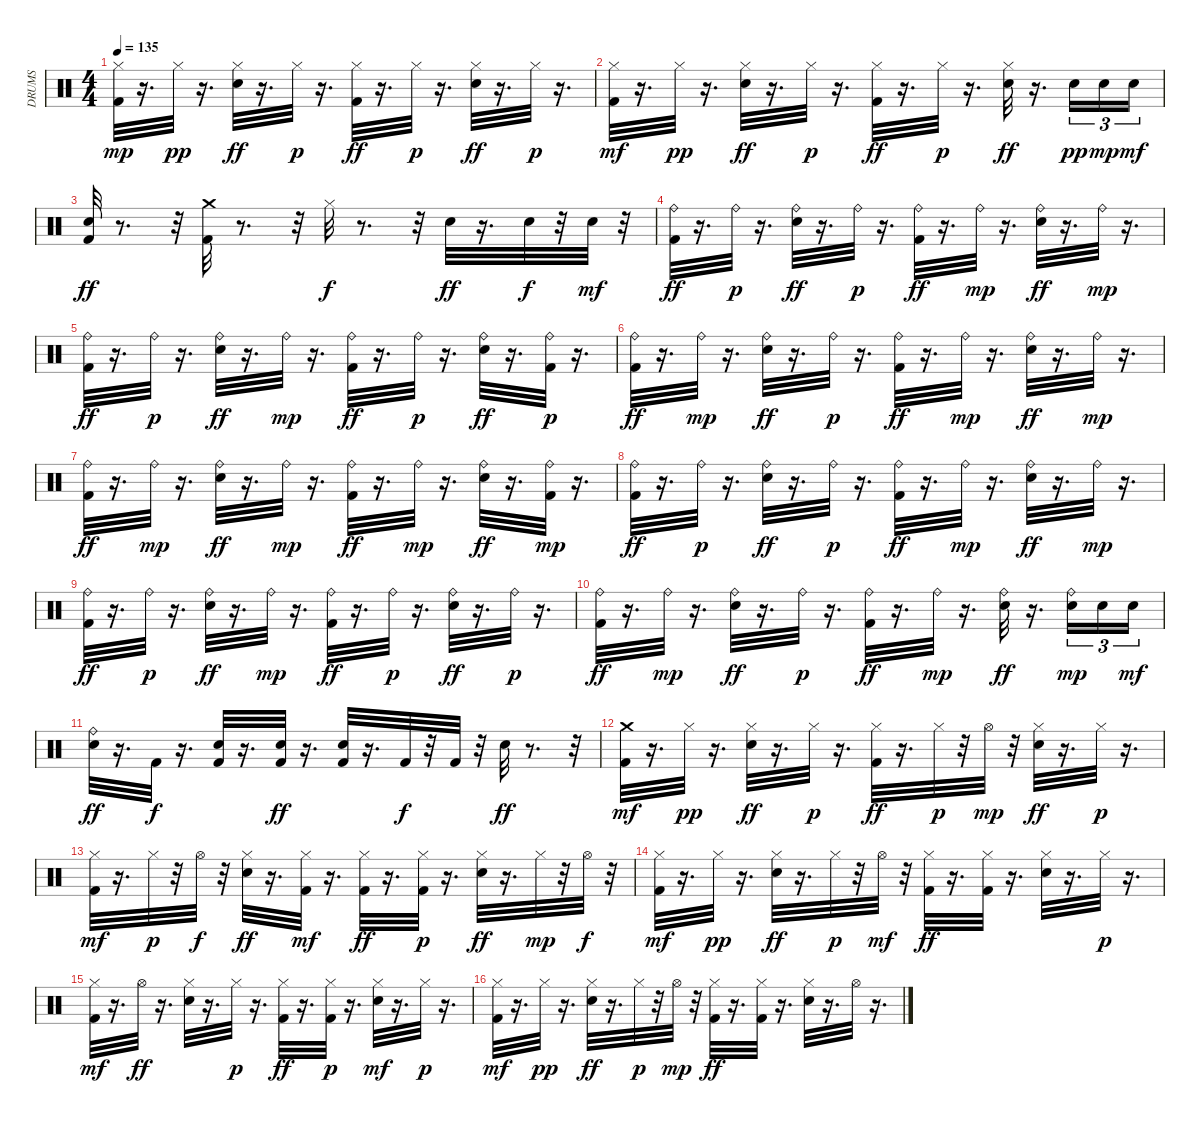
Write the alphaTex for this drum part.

\track ("DRUMS" "DRUMS") {instrument percussion}
\staff {score}
\articulation defaults
\ts (4 4)
\tempo 135
\clef neutral
\ks c
("Kick (hit) 2" "Hi-Hat (closed)").32{dy mp} r.16{d} "Hi-Hat (closed)".32{dy pp} r.16{d} ("Hi-Hat (closed)" "Electric Snare (hit)").32{dy ff} r.16{d} "Hi-Hat (closed)".32{dy p} r.16{d} ("Hi-Hat (closed)" "Kick (hit) 2").32{dy ff} r.16{d} "Hi-Hat (closed)".32{dy p} r.16{d} ("Electric Snare (hit)" "Hi-Hat (closed)").32{dy ff} r.16{d} "Hi-Hat (closed)".32{dy p} r.16{d} |
("Kick (hit) 2" "Hi-Hat (closed)").32{dy mf} r.16{d} "Hi-Hat (closed)".32{dy pp} r.16{d} ("Hi-Hat (closed)" "Electric Snare (hit)").32{dy ff} r.16{d} "Hi-Hat (closed)".32{dy p} r.16{d} ("Hi-Hat (closed)" "Kick (hit) 2").32{dy ff} r.16{d} "Hi-Hat (closed)".32{dy p} r.16{d} ("Electric Snare (hit)" "Hi-Hat (closed)").32{dy ff} r.16{d} "Electric Snare (hit)".16{tu (3 2) dy pp} "Electric Snare (hit)".16{tu (3 2) dy mp} "Electric Snare (hit)".16{tu (3 2) dy mf} |
("Electric Snare (hit)" "Kick (hit) 2").32{dy ff} r.8{d} r.32 ("Crash medium (hit)" "Kick (hit) 2").32 r.8{d} r.32 "Hi-Hat (closed)".32{dy f} r.8{d} r.32 "Electric Snare (hit)".32{dy ff} r.16{d} "Electric Snare (hit)".32{dy f} r.32 "Electric Snare (hit)".32{dy mf} r.32 |
("Kick (hit) 2" "Ride (bell)").32{dy ff} r.16{d} "Ride (bell)".32{dy p} r.16{d} ("Electric Snare (hit)" "Ride (bell)").32{dy ff} r.16{d} "Ride (bell)".32{dy p} r.16{d} ("Kick (hit) 2" "Ride (bell)").32{dy ff} r.16{d} "Ride (bell)".32{dy mp} r.16{d} ("Electric Snare (hit)" "Ride (bell)").32{dy ff} r.16{d} "Ride (bell)".32{dy mp} r.16{d} |
("Ride (bell)" "Kick (hit) 2").32{dy ff} r.16{d} "Ride (bell)".32{dy p} r.16{d} ("Ride (bell)" "Electric Snare (hit)").32{dy ff} r.16{d} "Ride (bell)".32{dy mp} r.16{d} ("Kick (hit) 2" "Ride (bell)").32{dy ff} r.16{d} "Ride (bell)".32{dy p} r.16{d} ("Electric Snare (hit)" "Ride (bell)").32{dy ff} r.16{d} ("Kick (hit) 2" "Ride (bell)").32{dy p} r.16{d} |
("Kick (hit) 2" "Ride (bell)").32{dy ff} r.16{d} "Ride (bell)".32{dy mp} r.16{d} ("Electric Snare (hit)" "Ride (bell)").32{dy ff} r.16{d} "Ride (bell)".32{dy p} r.16{d} ("Kick (hit) 2" "Ride (bell)").32{dy ff} r.16{d} "Ride (bell)".32{dy mp} r.16{d} ("Electric Snare (hit)" "Ride (bell)").32{dy ff} r.16{d} "Ride (bell)".32{dy mp} r.16{d} |
("Kick (hit) 2" "Ride (bell)").32{dy ff} r.16{d} "Ride (bell)".32{dy mp} r.16{d} ("Electric Snare (hit)" "Ride (bell)").32{dy ff} r.16{d} "Ride (bell)".32{dy mp} r.16{d} ("Kick (hit) 2" "Ride (bell)").32{dy ff} r.16{d} "Ride (bell)".32{dy mp} r.16{d} ("Electric Snare (hit)" "Ride (bell)").32{dy ff} r.16{d} ("Kick (hit) 2" "Ride (bell)").32{dy mp} r.16{d} |
("Kick (hit) 2" "Ride (bell)").32{dy ff} r.16{d} "Ride (bell)".32{dy p} r.16{d} ("Electric Snare (hit)" "Ride (bell)").32{dy ff} r.16{d} "Ride (bell)".32{dy p} r.16{d} ("Kick (hit) 2" "Ride (bell)").32{dy ff} r.16{d} "Ride (bell)".32{dy mp} r.16{d} ("Electric Snare (hit)" "Ride (bell)").32{dy ff} r.16{d} "Ride (bell)".32{dy mp} r.16{d} |
("Ride (bell)" "Kick (hit) 2").32{dy ff} r.16{d} "Ride (bell)".32{dy p} r.16{d} ("Ride (bell)" "Electric Snare (hit)").32{dy ff} r.16{d} "Ride (bell)".32{dy mp} r.16{d} ("Kick (hit) 2" "Ride (bell)").32{dy ff} r.16{d} "Ride (bell)".32{dy p} r.16{d} ("Electric Snare (hit)" "Ride (bell)").32{dy ff} r.16{d} "Ride (bell)".32{dy p} r.16{d} |
("Kick (hit) 2" "Ride (bell)").32{dy ff} r.16{d} "Ride (bell)".32{dy mp} r.16{d} ("Electric Snare (hit)" "Ride (bell)").32{dy ff} r.16{d} "Ride (bell)".32{dy p} r.16{d} ("Kick (hit) 2" "Ride (bell)").32{dy ff} r.16{d} "Ride (bell)".32{dy mp} r.16{d} ("Electric Snare (hit)" "Ride (bell)").32{dy ff} r.16{d} ("Electric Snare (hit)" "Ride (bell)").16{tu (3 2) dy mp} "Electric Snare (hit)".16{tu (3 2)} "Electric Snare (hit)".16{tu (3 2) dy mf} |
("Electric Snare (hit)" "Ride (bell)").32{dy ff} r.16{d} "Kick (hit) 2".32{dy f} r.16{d} ("Electric Snare (hit)" "Kick (hit) 2").32 r.16{d} ("Electric Snare (hit)" "Kick (hit) 2").32{dy ff} r.16{d} ("Electric Snare (hit)" "Kick (hit) 2").32 r.16{d} "Kick (hit) 2".32{dy f} r.32 "Kick (hit) 2".32 r.32 "Electric Snare (hit)".32{dy ff} r.8{d} r.32 |
("Kick (hit) 2" "Crash medium (hit)").32{dy mf} r.16{d} "Hi-Hat (closed)".32{dy pp} r.16{d} ("Hi-Hat (closed)" "Electric Snare (hit)").32{dy ff} r.16{d} "Hi-Hat (closed)".32{dy p} r.16{d} ("Hi-Hat (closed)" "Kick (hit) 2").32{dy ff} r.16{d} "Hi-Hat (closed)".32{dy p} r.32 "Hi-Hat (open)".32{dy mp} r.32 ("Electric Snare (hit)" "Hi-Hat (closed)").32{dy ff} r.16{d} "Hi-Hat (closed)".32{dy p} r.16{d} |
("Kick (hit) 2" "Hi-Hat (closed)").32{dy mf} r.16{d} "Hi-Hat (closed)".32{dy p} r.32 "Hi-Hat (open)".32{dy f} r.32 ("Hi-Hat (closed)" "Electric Snare (hit)").32{dy ff} r.16{d} ("Hi-Hat (closed)" "Kick (hit) 2").32{dy mf} r.16{d} ("Kick (hit) 2" "Hi-Hat (closed)").32{dy ff} r.16{d} ("Kick (hit) 2" "Hi-Hat (closed)").32{dy p} r.16{d} ("Hi-Hat (closed)" "Electric Snare (hit)").32{dy ff} r.16{d} "Hi-Hat (closed)".32{dy mp} r.32 "Hi-Hat (open)".32{dy f} r.32 |
("Kick (hit) 2" "Hi-Hat (closed)").32{dy mf} r.16{d} "Hi-Hat (closed)".32{dy pp} r.16{d} ("Hi-Hat (closed)" "Electric Snare (hit)").32{dy ff} r.16{d} "Hi-Hat (closed)".32{dy p} r.32 "Hi-Hat (open)".32{dy mf} r.32 ("Hi-Hat (closed)" "Kick (hit) 2").32{dy ff} r.16{d} ("Hi-Hat (closed)" "Kick (hit) 2").32 r.16{d} ("Electric Snare (hit)" "Hi-Hat (closed)").32 r.16{d} "Hi-Hat (closed)".32{dy p} r.16{d} |
("Kick (hit) 2" "Hi-Hat (closed)").32{dy mf} r.16{d} "Hi-Hat (open)".32{dy ff} r.16{d} ("Hi-Hat (closed)" "Electric Snare (hit)").32 r.16{d} "Hi-Hat (closed)".32{dy p} r.16{d} ("Kick (hit) 2" "Hi-Hat (closed)").32{dy ff} r.16{d} ("Kick (hit) 2" "Hi-Hat (closed)").32{dy p} r.16{d} ("Hi-Hat (closed)" "Electric Snare (hit)").32{dy mf} r.16{d} "Hi-Hat (closed)".32{dy p} r.16{d} |
("Kick (hit) 2" "Hi-Hat (closed)").32{dy mf} r.16{d} "Hi-Hat (closed)".32{dy pp} r.16{d} ("Hi-Hat (closed)" "Electric Snare (hit)").32{dy ff} r.16{d} "Hi-Hat (closed)".32{dy p} r.32 "Hi-Hat (open)".32{dy mp} r.32 ("Hi-Hat (closed)" "Kick (hit) 2").32{dy ff} r.16{d} ("Hi-Hat (closed)" "Kick (hit) 2").32 r.16{d} ("Electric Snare (hit)" "Hi-Hat (closed)").32 r.16{d} "Hi-Hat (open)".32 r.16{d}
